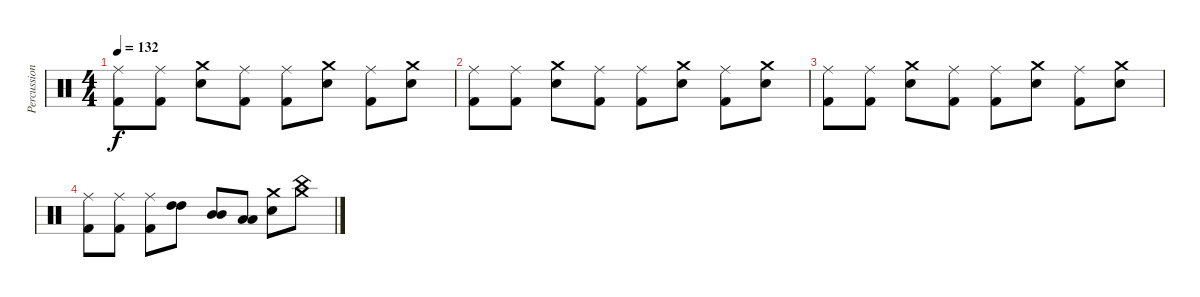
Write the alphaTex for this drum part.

\track ("Percussion" "Percussion") {instrument percussion}
\staff {score}
\articulation defaults
\ts (4 4)
\tempo 132
\clef neutral
\ks c
("Ride (middle)" "Kick (hit) 2").8{dy f} ("Ride (middle)" "Kick (hit) 2").8 ("Crash medium (hit)" "Electric Snare (hit)").8 ("Ride (middle)" "Kick (hit) 2").8 ("Ride (middle)" "Kick (hit) 2").8 ("Crash medium (hit)" "Electric Snare (hit)").8 ("Ride (middle)" "Kick (hit) 2").8 ("Crash medium (hit)" "Electric Snare (hit)").8 |
("Ride (middle)" "Kick (hit) 2").8 ("Ride (middle)" "Kick (hit) 2").8 ("Crash medium (hit)" "Electric Snare (hit)").8 ("Ride (middle)" "Kick (hit) 2").8 ("Ride (middle)" "Kick (hit) 2").8 ("Crash medium (hit)" "Electric Snare (hit)").8 ("Ride (middle)" "Kick (hit) 2").8 ("Crash medium (hit)" "Electric Snare (hit)").8 |
("Ride (middle)" "Kick (hit) 2").8 ("Ride (middle)" "Kick (hit) 2").8 ("Crash medium (hit)" "Electric Snare (hit)").8 ("Ride (middle)" "Kick (hit) 2").8 ("Ride (middle)" "Kick (hit) 2").8 ("Crash medium (hit)" "Electric Snare (hit)").8 ("Ride (middle)" "Kick (hit) 2").8 ("Crash medium (hit)" "Electric Snare (hit)").8 |
("Ride (middle)" "Kick (hit) 2").8 ("Ride (middle)" "Kick (hit) 2").8 ("Ride (middle)" "Kick (hit) 2").8 ("High Tom (hit)" "High Tom (hit)").8 ("Mid Tom (hit)" "Mid Tom (hit)").8 ("Low Tom (hit)" "Low Tom (hit)").8 ("Electric Snare (hit)" "Crash medium (hit)").8 ("Crash medium (hit)" "China (hit)").8
